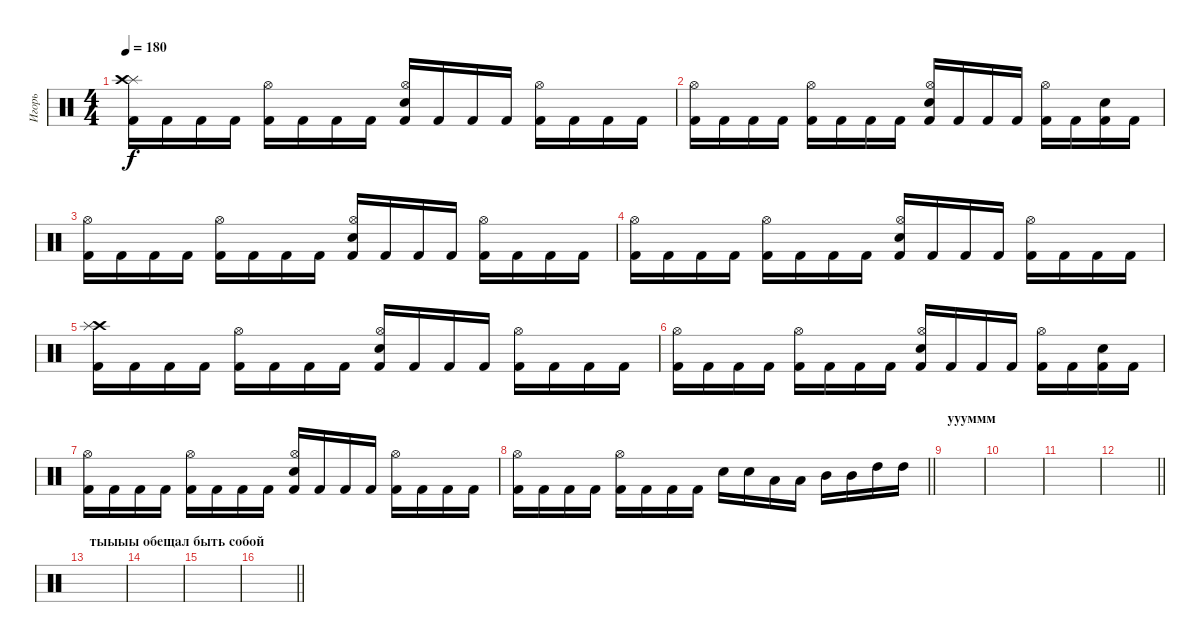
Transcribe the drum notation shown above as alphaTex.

\track ("Игорь" "Игорь") {instrument percussion}
\staff {score}
\articulation defaults
\ts (4 4)
\tempo 180
\clef neutral
\ks c
("Splash (hit)" "Crash high (hit)" "Kick (hit) 2").16{dy f} "Kick (hit) 2".16 "Kick (hit) 2".16 "Kick (hit) 2".16 ("Hi-Hat (open)" "Kick (hit) 2").16 "Kick (hit) 2".16 "Kick (hit) 2".16 "Kick (hit) 2".16 ("Hi-Hat (open)" "Electric Snare (hit)" "Kick (hit) 2").16 "Kick (hit) 2".16 "Kick (hit) 2".16 "Kick (hit) 2".16 ("Hi-Hat (open)" "Kick (hit) 2").16 "Kick (hit) 2".16 "Kick (hit) 2".16 "Kick (hit) 2".16 |
("Hi-Hat (open)" "Kick (hit) 2").16 "Kick (hit) 2".16 "Kick (hit) 2".16 "Kick (hit) 2".16 ("Hi-Hat (open)" "Kick (hit) 2").16 "Kick (hit) 2".16 "Kick (hit) 2".16 "Kick (hit) 2".16 ("Hi-Hat (open)" "Electric Snare (hit)" "Kick (hit) 2").16 "Kick (hit) 2".16 "Kick (hit) 2".16 "Kick (hit) 2".16 ("Hi-Hat (open)" "Kick (hit) 2").16 "Kick (hit) 2".16 ("Electric Snare (hit)" "Kick (hit) 2").16 "Kick (hit) 2".16 |
("Hi-Hat (open)" "Kick (hit) 2").16 "Kick (hit) 2".16 "Kick (hit) 2".16 "Kick (hit) 2".16 ("Hi-Hat (open)" "Kick (hit) 2").16 "Kick (hit) 2".16 "Kick (hit) 2".16 "Kick (hit) 2".16 ("Hi-Hat (open)" "Electric Snare (hit)" "Kick (hit) 2").16 "Kick (hit) 2".16 "Kick (hit) 2".16 "Kick (hit) 2".16 ("Hi-Hat (open)" "Kick (hit) 2").16 "Kick (hit) 2".16 "Kick (hit) 2".16 "Kick (hit) 2".16 |
("Hi-Hat (open)" "Kick (hit) 2").16 "Kick (hit) 2".16 "Kick (hit) 2".16 "Kick (hit) 2".16 ("Hi-Hat (open)" "Kick (hit) 2").16 "Kick (hit) 2".16 "Kick (hit) 2".16 "Kick (hit) 2".16 ("Hi-Hat (open)" "Electric Snare (hit)" "Kick (hit) 2").16 "Kick (hit) 2".16 "Kick (hit) 2".16 "Kick (hit) 2".16 ("Hi-Hat (open)" "Kick (hit) 2").16 "Kick (hit) 2".16 "Kick (hit) 2".16 "Kick (hit) 2".16 |
("Crash high (hit)" "Splash (hit)" "Kick (hit) 2").16 "Kick (hit) 2".16 "Kick (hit) 2".16 "Kick (hit) 2".16 ("Hi-Hat (open)" "Kick (hit) 2").16 "Kick (hit) 2".16 "Kick (hit) 2".16 "Kick (hit) 2".16 ("Hi-Hat (open)" "Electric Snare (hit)" "Kick (hit) 2").16 "Kick (hit) 2".16 "Kick (hit) 2".16 "Kick (hit) 2".16 ("Hi-Hat (open)" "Kick (hit) 2").16 "Kick (hit) 2".16 "Kick (hit) 2".16 "Kick (hit) 2".16 |
("Hi-Hat (open)" "Kick (hit) 2").16 "Kick (hit) 2".16 "Kick (hit) 2".16 "Kick (hit) 2".16 ("Hi-Hat (open)" "Kick (hit) 2").16 "Kick (hit) 2".16 "Kick (hit) 2".16 "Kick (hit) 2".16 ("Hi-Hat (open)" "Electric Snare (hit)" "Kick (hit) 2").16 "Kick (hit) 2".16 "Kick (hit) 2".16 "Kick (hit) 2".16 ("Hi-Hat (open)" "Kick (hit) 2").16 "Kick (hit) 2".16 ("Electric Snare (hit)" "Kick (hit) 2").16 "Kick (hit) 2".16 |
("Hi-Hat (open)" "Kick (hit) 2").16 "Kick (hit) 2".16 "Kick (hit) 2".16 "Kick (hit) 2".16 ("Hi-Hat (open)" "Kick (hit) 2").16 "Kick (hit) 2".16 "Kick (hit) 2".16 "Kick (hit) 2".16 ("Hi-Hat (open)" "Electric Snare (hit)" "Kick (hit) 2").16 "Kick (hit) 2".16 "Kick (hit) 2".16 "Kick (hit) 2".16 ("Hi-Hat (open)" "Kick (hit) 2").16 "Kick (hit) 2".16 "Kick (hit) 2".16 "Kick (hit) 2".16 |
\barLineRight lightlight
("Hi-Hat (open)" "Kick (hit) 2").16 "Kick (hit) 2".16 "Kick (hit) 2".16 "Kick (hit) 2".16 ("Hi-Hat (open)" "Kick (hit) 2").16 "Kick (hit) 2".16 "Kick (hit) 2".16 "Kick (hit) 2".16 "Electric Snare (hit)".16 "Electric Snare (hit)".16 "Low Tom (hit)".16 "Low Tom (hit)".16 "Mid Tom (hit)".16 "Mid Tom (hit)".16 "High Tom (hit)".16 "High Tom (hit)".16 |
\section ("" "уууммм")
|
|
|
\barLineRight lightlight
|
\section ("" "тыыыы обещал быть собой")
|
|
|
\barLineRight lightlight
